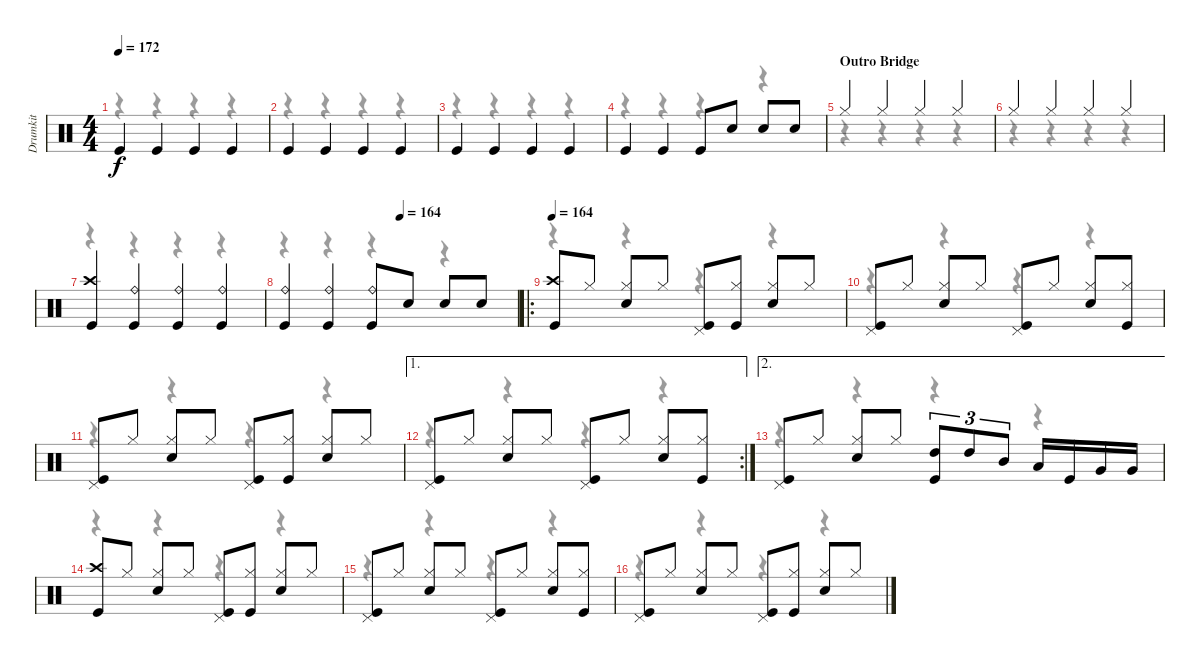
\track ("Drumkit" "Drumkit") {instrument percussion}
\staff {score}
\articulation defaults
\voice
\ts (4 4)
\tempo 172
\clef neutral
\ks c "Kick (hit)".4{dy f} "Kick (hit)".4 "Kick (hit)".4 "Kick (hit)".4
|
"Kick (hit)".4 "Kick (hit)".4 "Kick (hit)".4 "Kick (hit)".4 |
"Kick (hit)".4 "Kick (hit)".4 "Kick (hit)".4 "Kick (hit)".4 |
"Kick (hit)".4 "Kick (hit)".4 "Kick (hit)".8 "Snare (hit) 2".8 "Snare (hit) 2".8 "Snare (hit) 2".8 |
\section ("" "Outro Bridge")
"Hi-Hat (closed)".4 "Hi-Hat (closed)".4 "Hi-Hat (closed)".4 "Hi-Hat (closed)".4 |
"Hi-Hat (closed)".4 "Hi-Hat (closed)".4 "Hi-Hat (closed)".4 "Hi-Hat (closed)".4 |
("Crash high (hit)" "Kick (hit)").4 ("Ride (bell)" "Kick (hit)").4 ("Ride (bell)" "Kick (hit)").4 ("Ride (bell)" "Kick (hit)").4 |
\tempo (164 0.5)
("Ride (bell)" "Kick (hit)").4 ("Ride (bell)" "Kick (hit)").4 ("Ride (bell)" "Kick (hit)").8 "Snare (hit) 2".8 "Snare (hit) 2".8 "Snare (hit) 2".8 |
\ro
\tempo 164
("Crash high (hit)" "Kick (hit)").8 "Hi-Hat (closed)".8 ("Hi-Hat (closed)" "Snare (hit) 2").8 "Hi-Hat (closed)".8 ("Pedal Hi-Hat (hit)" "Kick (hit)").8 ("Hi-Hat (closed)" "Kick (hit)").8 ("Hi-Hat (closed)" "Snare (hit) 2").8 "Hi-Hat (closed)".8 |
("Pedal Hi-Hat (hit)" "Kick (hit)").8 "Hi-Hat (closed)".8 ("Hi-Hat (closed)" "Snare (hit) 2").8 "Hi-Hat (closed)".8 ("Pedal Hi-Hat (hit)" "Kick (hit)").8 "Hi-Hat (closed)".8 ("Hi-Hat (closed)" "Snare (hit) 2").8 ("Hi-Hat (closed)" "Kick (hit)").8 |
("Pedal Hi-Hat (hit)" "Kick (hit)").8 "Hi-Hat (closed)".8 ("Hi-Hat (closed)" "Snare (hit) 2").8 "Hi-Hat (closed)".8 ("Pedal Hi-Hat (hit)" "Kick (hit)").8 ("Hi-Hat (closed)" "Kick (hit)").8 ("Hi-Hat (closed)" "Snare (hit) 2").8 "Hi-Hat (closed)".8 |
\ae 1
\rc 2
("Pedal Hi-Hat (hit)" "Kick (hit)").8 "Hi-Hat (closed)".8 ("Hi-Hat (closed)" "Snare (hit) 2").8 "Hi-Hat (closed)".8 ("Pedal Hi-Hat (hit)" "Kick (hit)").8 "Hi-Hat (closed)".8 ("Hi-Hat (closed)" "Snare (hit) 2").8 ("Hi-Hat (closed)" "Kick (hit)").8 |
\ae 2
("Pedal Hi-Hat (hit)" "Kick (hit)").8 "Hi-Hat (closed)".8 ("Hi-Hat (closed)" "Snare (hit) 2").8 "Hi-Hat (closed)".8 ("High Tom (hit)" "Kick (hit)").8{tu (3 2)} "High Tom (hit)".8{tu (3 2)} "Mid Tom (hit)".8{tu (3 2)} "Low Tom (hit)".16 "Kick (hit)".16 "Very Low Tom (hit)".16 "Very Low Tom (hit)".16 |
("Crash high (hit)" "Kick (hit)").8 "Hi-Hat (closed)".8 ("Hi-Hat (closed)" "Snare (hit) 2").8 "Hi-Hat (closed)".8 ("Pedal Hi-Hat (hit)" "Kick (hit)").8 ("Hi-Hat (closed)" "Kick (hit)").8 ("Hi-Hat (closed)" "Snare (hit) 2").8 "Hi-Hat (closed)".8 |
("Pedal Hi-Hat (hit)" "Kick (hit)").8 "Hi-Hat (closed)".8 ("Hi-Hat (closed)" "Snare (hit) 2").8 "Hi-Hat (closed)".8 ("Pedal Hi-Hat (hit)" "Kick (hit)").8 "Hi-Hat (closed)".8 ("Hi-Hat (closed)" "Snare (hit) 2").8 ("Hi-Hat (closed)" "Kick (hit)").8 |
("Pedal Hi-Hat (hit)" "Kick (hit)").8 "Hi-Hat (closed)".8 ("Hi-Hat (closed)" "Snare (hit) 2").8 "Hi-Hat (closed)".8 ("Pedal Hi-Hat (hit)" "Kick (hit)").8 ("Hi-Hat (closed)" "Kick (hit)").8 ("Hi-Hat (closed)" "Snare (hit) 2").8 "Hi-Hat (closed)".8
\voice
\clef neutral
\ottava regular
\simile none
\ks c
r.4{dy f} r.4 r.4 r.4 |
r.4 r.4 r.4 r.4 |
r.4 r.4 r.4 r.4 |
r.4 r.4 r.4 r.4 |
r.4 r.4 r.4 r.4 |
r.4 r.4 r.4 r.4 |
r.4 r.4 r.4 r.4 |
r.4 r.4 r.4 r.4 |
r.4 r.4 r.4 r.4 |
r.4 r.4 r.4 r.4 |
r.4 r.4 r.4 r.4 |
r.4 r.4 r.4 r.4 |
r.4 r.4 r.4 r.4 |
r.4 r.4 r.4 r.4 |
r.4 r.4 r.4 r.4 |
r.4 r.4 r.4 r.4
